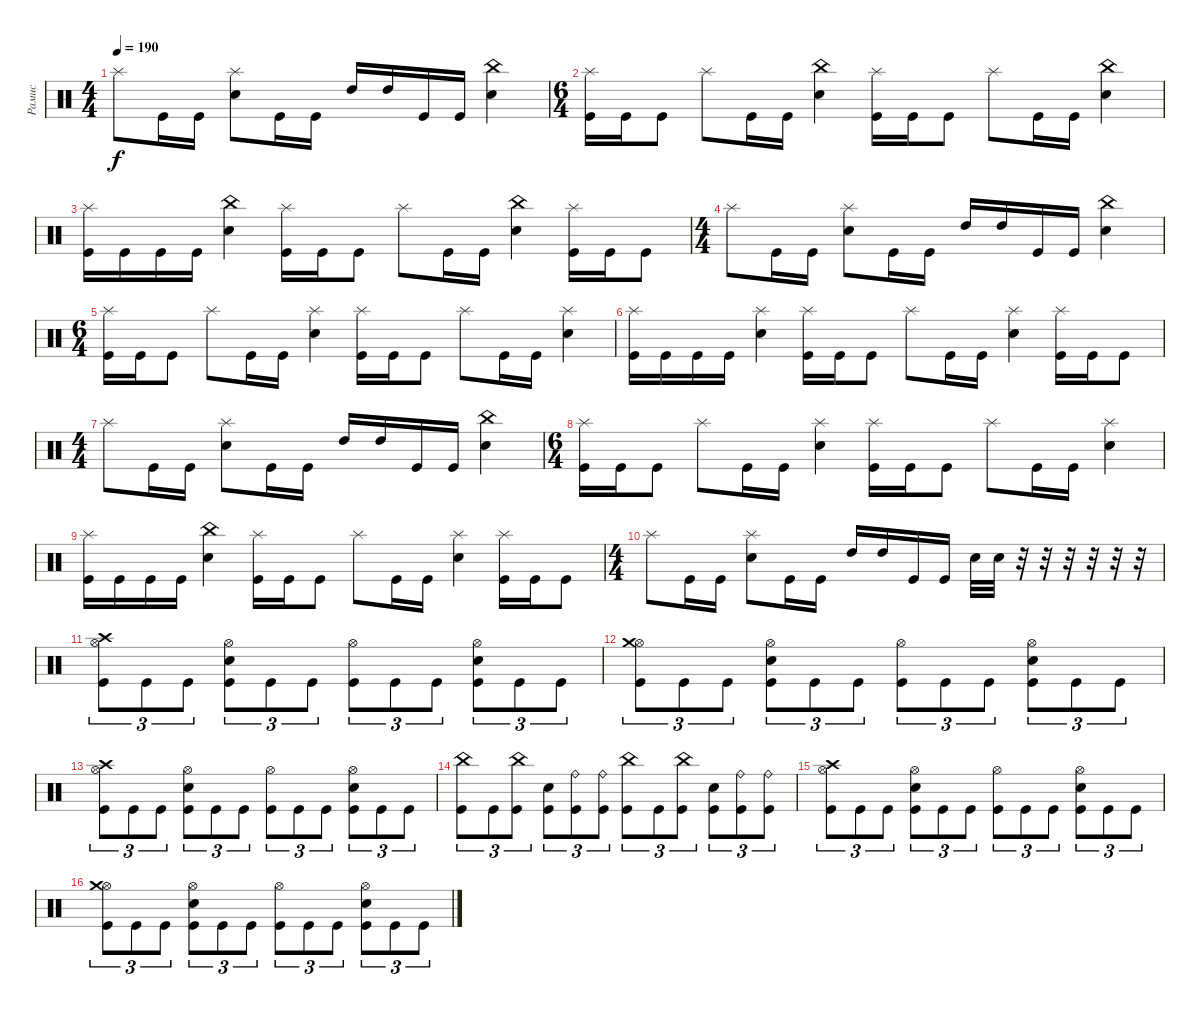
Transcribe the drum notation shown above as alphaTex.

\track ("Рамис" "Рамис") {instrument percussion}
\staff {score}
\articulation defaults
\ts (4 4)
\tempo 190
\clef neutral
\ks c "Splash (hit)".8{dy f} "Kick (hit)".16 "Kick (hit)".16
("Splash (hit)" "Electric Snare (hit)").8 "Kick (hit)".16 "Kick (hit)".16 "High Tom (hit)".16 "High Tom (hit)".16 "Kick (hit)".16 "Kick (hit)".16 ("China (hit)" "Electric Snare (hit)").4 |
\ts (6 4)
("Splash (hit)" "Kick (hit)").16 "Kick (hit)".16 "Kick (hit)".8 "Splash (hit)".8 "Kick (hit)".16 "Kick (hit)".16 ("China (hit)" "Electric Snare (hit)").4 ("Splash (hit)" "Kick (hit)").16 "Kick (hit)".16 "Kick (hit)".8 "Splash (hit)".8 "Kick (hit)".16 "Kick (hit)".16 ("China (hit)" "Electric Snare (hit)").4 |
("Splash (hit)" "Kick (hit)").16 "Kick (hit)".16 "Kick (hit)".16 "Kick (hit)".16 ("China (hit)" "Electric Snare (hit)").4 ("Splash (hit)" "Kick (hit)").16 "Kick (hit)".16 "Kick (hit)".8 "Splash (hit)".8 "Kick (hit)".16 "Kick (hit)".16 ("China (hit)" "Electric Snare (hit)").4 ("Splash (hit)" "Kick (hit)").16 "Kick (hit)".16 "Kick (hit)".8 |
\ts (4 4)
"Splash (hit)".8 "Kick (hit)".16 "Kick (hit)".16 ("Splash (hit)" "Electric Snare (hit)").8 "Kick (hit)".16 "Kick (hit)".16 "High Tom (hit)".16 "High Tom (hit)".16 "Kick (hit)".16 "Kick (hit)".16 ("China (hit)" "Electric Snare (hit)").4 |
\ts (6 4)
("Splash (hit)" "Kick (hit)").16 "Kick (hit)".16 "Kick (hit)".8 "Splash (hit)".8 "Kick (hit)".16 "Kick (hit)".16 ("Splash (hit)" "Electric Snare (hit)").4 ("Splash (hit)" "Kick (hit)").16 "Kick (hit)".16 "Kick (hit)".8 "Splash (hit)".8 "Kick (hit)".16 "Kick (hit)".16 ("Splash (hit)" "Electric Snare (hit)").4 |
("Splash (hit)" "Kick (hit)").16 "Kick (hit)".16 "Kick (hit)".16 "Kick (hit)".16 ("Splash (hit)" "Electric Snare (hit)").4 ("Splash (hit)" "Kick (hit)").16 "Kick (hit)".16 "Kick (hit)".8 "Splash (hit)".8 "Kick (hit)".16 "Kick (hit)".16 ("Splash (hit)" "Electric Snare (hit)").4 ("Splash (hit)" "Kick (hit)").16 "Kick (hit)".16 "Kick (hit)".8 |
\ts (4 4)
"Splash (hit)".8 "Kick (hit)".16 "Kick (hit)".16 ("Splash (hit)" "Electric Snare (hit)").8 "Kick (hit)".16 "Kick (hit)".16 "High Tom (hit)".16 "High Tom (hit)".16 "Kick (hit)".16 "Kick (hit)".16 ("China (hit)" "Electric Snare (hit)").4 |
\ts (6 4)
("Splash (hit)" "Kick (hit)").16 "Kick (hit)".16 "Kick (hit)".8 "Splash (hit)".8 "Kick (hit)".16 "Kick (hit)".16 ("Splash (hit)" "Electric Snare (hit)").4 ("Splash (hit)" "Kick (hit)").16 "Kick (hit)".16 "Kick (hit)".8 "Splash (hit)".8 "Kick (hit)".16 "Kick (hit)".16 ("Splash (hit)" "Electric Snare (hit)").4 |
("Splash (hit)" "Kick (hit)").16 "Kick (hit)".16 "Kick (hit)".16 "Kick (hit)".16 ("China (hit)" "Electric Snare (hit)").4 ("Splash (hit)" "Kick (hit)").16 "Kick (hit)".16 "Kick (hit)".8 "Splash (hit)".8 "Kick (hit)".16 "Kick (hit)".16 ("Splash (hit)" "Electric Snare (hit)").4 ("Splash (hit)" "Kick (hit)").16 "Kick (hit)".16 "Kick (hit)".8 |
\ts (4 4)
"Splash (hit)".8 "Kick (hit)".16 "Kick (hit)".16 ("Splash (hit)" "Electric Snare (hit)").8 "Kick (hit)".16 "Kick (hit)".16 "High Tom (hit)".16 "High Tom (hit)".16 "Kick (hit)".16 "Kick (hit)".16 "Electric Snare (hit)".32 "Electric Snare (hit)".32 r.32 r.32 r.32 r.32 r.32 r.32 |
("Crash high (hit)" "Hi-Hat (open)" "Kick (hit)").8{tu (3 2)} "Kick (hit)".8{tu (3 2)} "Kick (hit)".8{tu (3 2)} ("Hi-Hat (open)" "Electric Snare (hit)" "Kick (hit)").8{tu (3 2)} "Kick (hit)".8{tu (3 2)} "Kick (hit)".8{tu (3 2)} ("Hi-Hat (open)" "Kick (hit)").8{tu (3 2)} "Kick (hit)".8{tu (3 2)} "Kick (hit)".8{tu (3 2)} ("Hi-Hat (open)" "Electric Snare (hit)" "Kick (hit)").8{tu (3 2)} "Kick (hit)".8{tu (3 2)} "Kick (hit)".8{tu (3 2)} |
("Hi-Hat (open)" "Crash medium (hit)" "Kick (hit)").8{tu (3 2)} "Kick (hit)".8{tu (3 2)} "Kick (hit)".8{tu (3 2)} ("Hi-Hat (open)" "Electric Snare (hit)" "Kick (hit)").8{tu (3 2)} "Kick (hit)".8{tu (3 2)} "Kick (hit)".8{tu (3 2)} ("Hi-Hat (open)" "Kick (hit)").8{tu (3 2)} "Kick (hit)".8{tu (3 2)} "Kick (hit)".8{tu (3 2)} ("Hi-Hat (open)" "Electric Snare (hit)" "Kick (hit)").8{tu (3 2)} "Kick (hit)".8{tu (3 2)} "Kick (hit)".8{tu (3 2)} |
("Hi-Hat (open)" "Crash high (hit)" "Kick (hit)").8{tu (3 2)} "Kick (hit)".8{tu (3 2)} "Kick (hit)".8{tu (3 2)} ("Hi-Hat (open)" "Electric Snare (hit)" "Kick (hit)").8{tu (3 2)} "Kick (hit)".8{tu (3 2)} "Kick (hit)".8{tu (3 2)} ("Hi-Hat (open)" "Kick (hit)").8{tu (3 2)} "Kick (hit)".8{tu (3 2)} "Kick (hit)".8{tu (3 2)} ("Hi-Hat (open)" "Electric Snare (hit)" "Kick (hit)").8{tu (3 2)} "Kick (hit)".8{tu (3 2)} "Kick (hit)".8{tu (3 2)} |
("China (hit)" "Kick (hit)").8{tu (3 2)} "Kick (hit)".8{tu (3 2)} ("China (hit)" "Kick (hit)").8{tu (3 2)} ("Electric Snare (hit)" "Kick (hit)").8{tu (3 2)} ("Ride (bell)" "Kick (hit)").8{tu (3 2)} ("Ride (bell)" "Kick (hit)").8{tu (3 2)} ("China (hit)" "Kick (hit)").8{tu (3 2)} "Kick (hit)".8{tu (3 2)} ("China (hit)" "Kick (hit)").8{tu (3 2)} ("Electric Snare (hit)" "Kick (hit)").8{tu (3 2)} ("Ride (bell)" "Kick (hit)").8{tu (3 2)} ("Ride (bell)" "Kick (hit)").8{tu (3 2)} |
("Hi-Hat (open)" "Crash high (hit)" "Kick (hit)").8{tu (3 2)} "Kick (hit)".8{tu (3 2)} "Kick (hit)".8{tu (3 2)} ("Hi-Hat (open)" "Electric Snare (hit)" "Kick (hit)").8{tu (3 2)} "Kick (hit)".8{tu (3 2)} "Kick (hit)".8{tu (3 2)} ("Hi-Hat (open)" "Kick (hit)").8{tu (3 2)} "Kick (hit)".8{tu (3 2)} "Kick (hit)".8{tu (3 2)} ("Hi-Hat (open)" "Electric Snare (hit)" "Kick (hit)").8{tu (3 2)} "Kick (hit)".8{tu (3 2)} "Kick (hit)".8{tu (3 2)} |
("Hi-Hat (open)" "Crash medium (hit)" "Kick (hit)").8{tu (3 2)} "Kick (hit)".8{tu (3 2)} "Kick (hit)".8{tu (3 2)} ("Hi-Hat (open)" "Electric Snare (hit)" "Kick (hit)").8{tu (3 2)} "Kick (hit)".8{tu (3 2)} "Kick (hit)".8{tu (3 2)} ("Hi-Hat (open)" "Kick (hit)").8{tu (3 2)} "Kick (hit)".8{tu (3 2)} "Kick (hit)".8{tu (3 2)} ("Hi-Hat (open)" "Electric Snare (hit)" "Kick (hit)").8{tu (3 2)} "Kick (hit)".8{tu (3 2)} "Kick (hit)".8{tu (3 2)}
